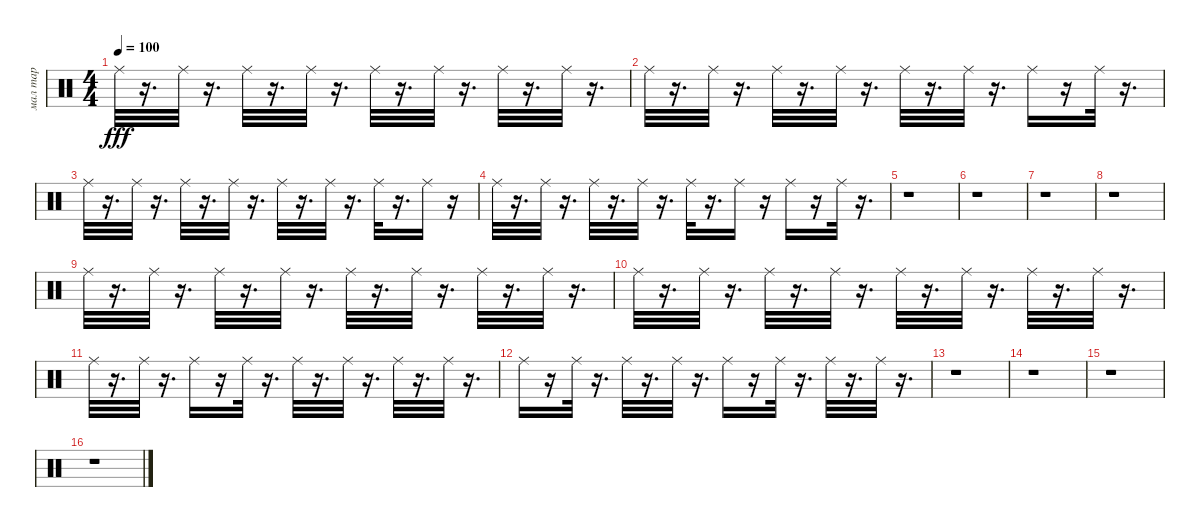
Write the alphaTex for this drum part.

\track ("мал тар" "мал тар") {instrument percussion}
\staff {score}
\articulation defaults
\ts (4 4)
\tempo 100
\clef neutral
\ks c "Ride (middle)".32{dy fff}
r.16{d} "Ride (middle)".32 r.16{d} "Ride (middle)".32 r.16{d} "Ride (middle)".32 r.16{d} "Ride (middle)".32 r.16{d} "Ride (middle)".32 r.16{d} "Ride (middle)".32 r.16{d} "Ride (middle)".32 r.16{d} |
"Ride (middle)".32 r.16{d} "Ride (middle)".32 r.16{d} "Ride (middle)".32 r.16{d} "Ride (middle)".32 r.16{d} "Ride (middle)".32 r.16{d} "Ride (middle)".32 r.16{d} "Ride (middle)".16 r.16 "Ride (middle)".32 r.16{d} |
"Ride (middle)".32 r.16{d} "Ride (middle)".32 r.16{d} "Ride (middle)".32 r.16{d} "Ride (middle)".32 r.16{d} "Ride (middle)".32 r.16{d} "Ride (middle)".32 r.16{d} "Ride (middle)".32 r.16{d} "Ride (middle)".16 r.16 |
"Ride (middle)".32 r.16{d} "Ride (middle)".32 r.16{d} "Ride (middle)".32 r.16{d} "Ride (middle)".32 r.16{d} "Ride (middle)".32 r.16{d} "Ride (middle)".16 r.16 "Ride (middle)".16 r.16 "Ride (middle)".32 r.16{d} |
r.1 |
r.1 |
r.1 |
r.1 |
"Ride (middle)".32 r.16{d} "Ride (middle)".32 r.16{d} "Ride (middle)".32 r.16{d} "Ride (middle)".32 r.16{d} "Ride (middle)".32 r.16{d} "Ride (middle)".32 r.16{d} "Ride (middle)".32 r.16{d} "Ride (middle)".32 r.16{d} |
"Ride (middle)".32 r.16{d} "Ride (middle)".32 r.16{d} "Ride (middle)".32 r.16{d} "Ride (middle)".32 r.16{d} "Ride (middle)".32 r.16{d} "Ride (middle)".32 r.16{d} "Ride (middle)".32 r.16{d} "Ride (middle)".32 r.16{d} |
"Ride (middle)".32 r.16{d} "Ride (middle)".32 r.16{d} "Ride (middle)".16 r.16 "Ride (middle)".32 r.16{d} "Ride (middle)".32 r.16{d} "Ride (middle)".32 r.16{d} "Ride (middle)".32 r.16{d} "Ride (middle)".32 r.16{d} |
"Ride (middle)".16 r.16 "Ride (middle)".32 r.16{d} "Ride (middle)".32 r.16{d} "Ride (middle)".32 r.16{d} "Ride (middle)".16 r.16 "Ride (middle)".32 r.16{d} "Ride (middle)".32 r.16{d} "Ride (middle)".32 r.16{d} |
r.1 |
r.1 |
r.1 |
r.1
